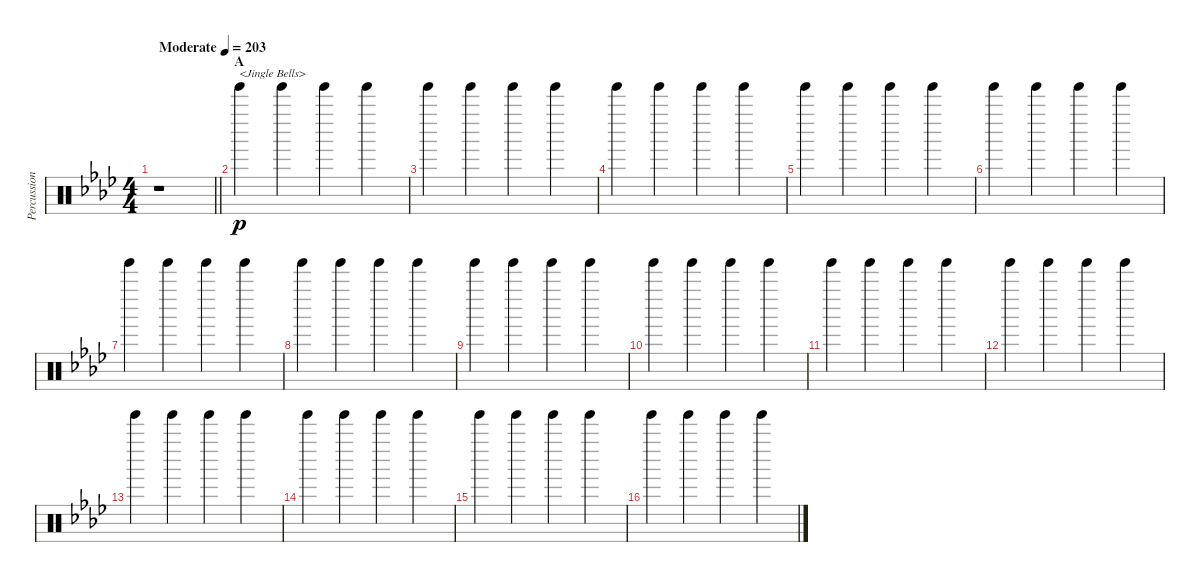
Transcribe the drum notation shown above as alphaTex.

\track ("Percussion" "Percussion") {instrument percussion}
\staff {score}
\articulation defaults
\ts (4 4)
\tempo (203 "Moderate")
\clef neutral
\barLineRight lightlight
\ks ab
r.1{dy p} |
\section ("" "A")
"Tinkle Bell (hit)".4{txt "<Jingle Bells>"} "Tinkle Bell (hit)".4 "Tinkle Bell (hit)".4 "Tinkle Bell (hit)".4 |
"Tinkle Bell (hit)".4 "Tinkle Bell (hit)".4 "Tinkle Bell (hit)".4 "Tinkle Bell (hit)".4 |
"Tinkle Bell (hit)".4 "Tinkle Bell (hit)".4 "Tinkle Bell (hit)".4 "Tinkle Bell (hit)".4 |
"Tinkle Bell (hit)".4 "Tinkle Bell (hit)".4 "Tinkle Bell (hit)".4 "Tinkle Bell (hit)".4 |
"Tinkle Bell (hit)".4 "Tinkle Bell (hit)".4 "Tinkle Bell (hit)".4 "Tinkle Bell (hit)".4 |
"Tinkle Bell (hit)".4 "Tinkle Bell (hit)".4 "Tinkle Bell (hit)".4 "Tinkle Bell (hit)".4 |
"Tinkle Bell (hit)".4 "Tinkle Bell (hit)".4 "Tinkle Bell (hit)".4 "Tinkle Bell (hit)".4 |
"Tinkle Bell (hit)".4 "Tinkle Bell (hit)".4 "Tinkle Bell (hit)".4 "Tinkle Bell (hit)".4 |
"Tinkle Bell (hit)".4 "Tinkle Bell (hit)".4 "Tinkle Bell (hit)".4 "Tinkle Bell (hit)".4 |
"Tinkle Bell (hit)".4 "Tinkle Bell (hit)".4 "Tinkle Bell (hit)".4 "Tinkle Bell (hit)".4 |
"Tinkle Bell (hit)".4 "Tinkle Bell (hit)".4 "Tinkle Bell (hit)".4 "Tinkle Bell (hit)".4 |
"Tinkle Bell (hit)".4 "Tinkle Bell (hit)".4 "Tinkle Bell (hit)".4 "Tinkle Bell (hit)".4 |
"Tinkle Bell (hit)".4 "Tinkle Bell (hit)".4 "Tinkle Bell (hit)".4 "Tinkle Bell (hit)".4 |
"Tinkle Bell (hit)".4 "Tinkle Bell (hit)".4 "Tinkle Bell (hit)".4 "Tinkle Bell (hit)".4 |
"Tinkle Bell (hit)".4 "Tinkle Bell (hit)".4 "Tinkle Bell (hit)".4 "Tinkle Bell (hit)".4
